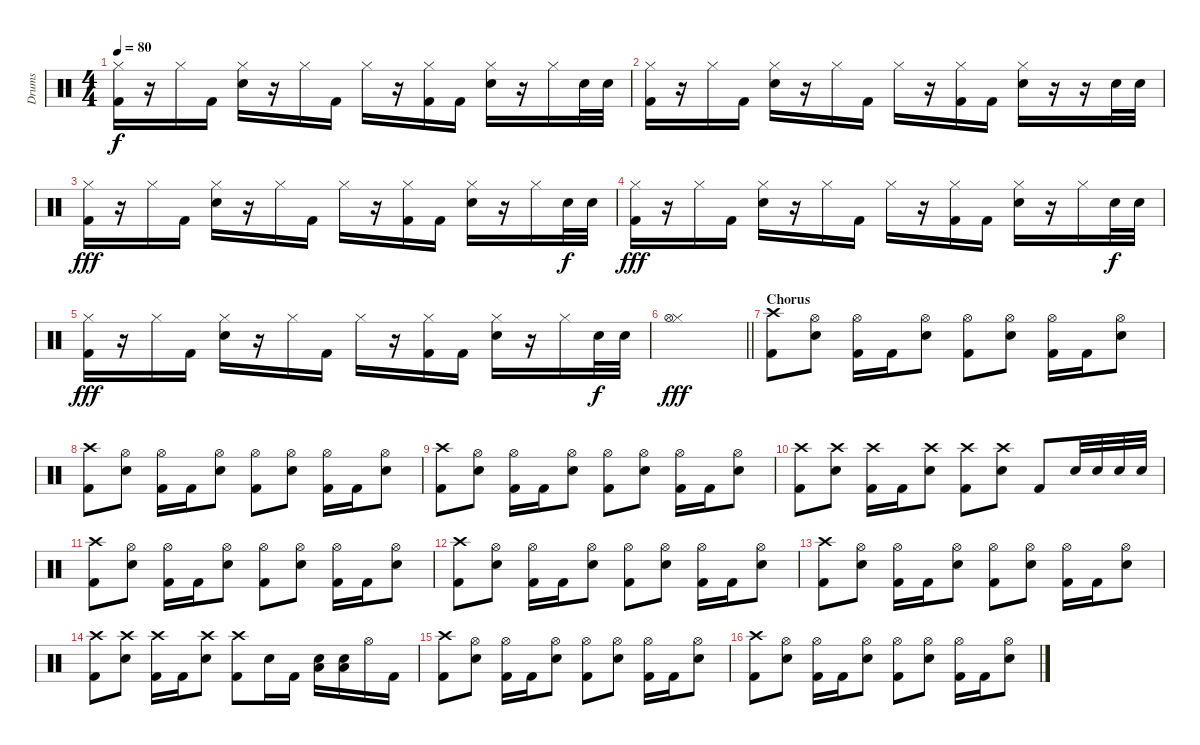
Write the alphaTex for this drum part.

\track ("Drums" "Drums") {instrument percussion}
\staff {score}
\articulation defaults
\ts (4 4)
\tempo 80
\clef neutral
\ks c
("Hi-Hat (closed)" "Kick (hit) 2").16{dy f} r.16 "Hi-Hat (closed)".16 "Kick (hit) 2".16 ("Hi-Hat (closed)" "Snare (hit) 2").16 r.16 "Hi-Hat (closed)".16 "Kick (hit) 2".16 "Hi-Hat (closed)".16 r.16 ("Hi-Hat (closed)" "Kick (hit) 2").16 "Kick (hit) 2".16 ("Hi-Hat (closed)" "Snare (hit) 2").16 r.16 "Hi-Hat (closed)".16 "Snare (hit) 2".32 "Snare (hit) 2".32 |
("Hi-Hat (closed)" "Kick (hit) 2").16 r.16 "Hi-Hat (closed)".16 "Kick (hit) 2".16 ("Hi-Hat (closed)" "Snare (hit) 2").16 r.16 "Hi-Hat (closed)".16 "Kick (hit) 2".16 "Hi-Hat (closed)".16 r.16 ("Hi-Hat (closed)" "Kick (hit) 2").16 "Kick (hit) 2".16 ("Hi-Hat (closed)" "Snare (hit) 2").16 r.16 r.16 "Snare (hit) 2".32 "Snare (hit) 2".32 |
("Hi-Hat (closed)" "Kick (hit) 2").16{dy fff} r.16 "Hi-Hat (closed)".16 "Kick (hit) 2".16 ("Hi-Hat (closed)" "Snare (hit) 2").16 r.16 "Hi-Hat (closed)".16 "Kick (hit) 2".16 "Hi-Hat (closed)".16 r.16 ("Hi-Hat (closed)" "Kick (hit) 2").16 "Kick (hit) 2".16 ("Hi-Hat (closed)" "Snare (hit) 2").16 r.16 "Hi-Hat (closed)".16 "Snare (hit) 2".32{dy f} "Snare (hit) 2".32 |
("Hi-Hat (closed)" "Kick (hit) 2").16{dy fff} r.16 "Hi-Hat (closed)".16 "Kick (hit) 2".16 ("Hi-Hat (closed)" "Snare (hit) 2").16 r.16 "Hi-Hat (closed)".16 "Kick (hit) 2".16 "Hi-Hat (closed)".16 r.16 ("Hi-Hat (closed)" "Kick (hit) 2").16 "Kick (hit) 2".16 ("Hi-Hat (closed)" "Snare (hit) 2").16 r.16 "Hi-Hat (closed)".16 "Snare (hit) 2".32{dy f} "Snare (hit) 2".32 |
("Hi-Hat (closed)" "Kick (hit) 2").16{dy fff} r.16 "Hi-Hat (closed)".16 "Kick (hit) 2".16 ("Hi-Hat (closed)" "Snare (hit) 2").16 r.16 "Hi-Hat (closed)".16 "Kick (hit) 2".16 "Hi-Hat (closed)".16 r.16 ("Hi-Hat (closed)" "Kick (hit) 2").16 "Kick (hit) 2".16 ("Hi-Hat (closed)" "Snare (hit) 2").16 r.16 "Hi-Hat (closed)".16 "Snare (hit) 2".32{dy f} "Snare (hit) 2".32 |
\barLineRight lightlight
("Hi-Hat (closed)" "Hi-Hat (open)").1{dy fff} |
\section ("" "Chorus")
("Crash high (hit)" "Kick (hit) 2").8 ("Hi-Hat (open)" "Snare (hit) 2").8 ("Hi-Hat (open)" "Kick (hit) 2").16 "Kick (hit) 2".16 ("Hi-Hat (open)" "Snare (hit) 2").8 ("Hi-Hat (open)" "Kick (hit) 2").8 ("Hi-Hat (open)" "Snare (hit) 2").8 ("Hi-Hat (open)" "Kick (hit) 2").16 "Kick (hit) 2".16 ("Hi-Hat (open)" "Snare (hit) 2").8 |
("Crash high (hit)" "Kick (hit) 2").8 ("Hi-Hat (open)" "Snare (hit) 2").8 ("Hi-Hat (open)" "Kick (hit) 2").16 "Kick (hit) 2".16 ("Hi-Hat (open)" "Snare (hit) 2").8 ("Hi-Hat (open)" "Kick (hit) 2").8 ("Hi-Hat (open)" "Snare (hit) 2").8 ("Hi-Hat (open)" "Kick (hit) 2").16 "Kick (hit) 2".16 ("Hi-Hat (open)" "Snare (hit) 2").8 |
("Crash high (hit)" "Kick (hit) 2").8 ("Hi-Hat (open)" "Snare (hit) 2").8 ("Hi-Hat (open)" "Kick (hit) 2").16 "Kick (hit) 2".16 ("Hi-Hat (open)" "Snare (hit) 2").8 ("Hi-Hat (open)" "Kick (hit) 2").8 ("Hi-Hat (open)" "Snare (hit) 2").8 ("Hi-Hat (open)" "Kick (hit) 2").16 "Kick (hit) 2".16 ("Hi-Hat (open)" "Snare (hit) 2").8 |
("Crash high (hit)" "Kick (hit) 2").8 ("Crash high (hit)" "Snare (hit) 2").8 ("Crash high (hit)" "Kick (hit) 2").16 "Kick (hit) 2".16 ("Crash high (hit)" "Snare (hit) 2").8 ("Crash high (hit)" "Kick (hit) 2").8 ("Crash high (hit)" "Snare (hit) 2").8 "Kick (hit) 2".8 "Snare (hit) 2".32 "Snare (hit) 2".32 "Snare (hit) 2".32 "Snare (hit) 2".32 |
("Crash high (hit)" "Kick (hit) 2").8 ("Hi-Hat (open)" "Snare (hit) 2").8 ("Hi-Hat (open)" "Kick (hit) 2").16 "Kick (hit) 2".16 ("Hi-Hat (open)" "Snare (hit) 2").8 ("Hi-Hat (open)" "Kick (hit) 2").8 ("Hi-Hat (open)" "Snare (hit) 2").8 ("Hi-Hat (open)" "Kick (hit) 2").16 "Kick (hit) 2".16 ("Hi-Hat (open)" "Snare (hit) 2").8 |
("Crash high (hit)" "Kick (hit) 2").8 ("Hi-Hat (open)" "Snare (hit) 2").8 ("Hi-Hat (open)" "Kick (hit) 2").16 "Kick (hit) 2".16 ("Hi-Hat (open)" "Snare (hit) 2").8 ("Hi-Hat (open)" "Kick (hit) 2").8 ("Hi-Hat (open)" "Snare (hit) 2").8 ("Hi-Hat (open)" "Kick (hit) 2").16 "Kick (hit) 2".16 ("Hi-Hat (open)" "Snare (hit) 2").8 |
("Crash high (hit)" "Kick (hit) 2").8 ("Hi-Hat (open)" "Snare (hit) 2").8 ("Hi-Hat (open)" "Kick (hit) 2").16 "Kick (hit) 2".16 ("Hi-Hat (open)" "Snare (hit) 2").8 ("Hi-Hat (open)" "Kick (hit) 2").8 ("Hi-Hat (open)" "Snare (hit) 2").8 ("Hi-Hat (open)" "Kick (hit) 2").16 "Kick (hit) 2".16 ("Hi-Hat (open)" "Snare (hit) 2").8 |
("Crash high (hit)" "Kick (hit) 2").8 ("Crash high (hit)" "Snare (hit) 2").8 ("Crash high (hit)" "Kick (hit) 2").16 "Kick (hit) 2".16 ("Crash high (hit)" "Snare (hit) 2").8 ("Crash high (hit)" "Kick (hit) 2").8 "Snare (hit) 2".16 "Kick (hit) 2".16 ("Snare (hit) 2" "Low Floor Tom (hit)").16 ("Snare (hit) 2" "Low Floor Tom (hit)").16 "Hi-Hat (open)".16 "Kick (hit) 2".16 |
("Crash high (hit)" "Kick (hit) 2").8 ("Hi-Hat (open)" "Snare (hit) 2").8 ("Hi-Hat (open)" "Kick (hit) 2").16 "Kick (hit) 2".16 ("Hi-Hat (open)" "Snare (hit) 2").8 ("Hi-Hat (open)" "Kick (hit) 2").8 ("Hi-Hat (open)" "Snare (hit) 2").8 ("Hi-Hat (open)" "Kick (hit) 2").16 "Kick (hit) 2".16 ("Hi-Hat (open)" "Snare (hit) 2").8 |
("Crash high (hit)" "Kick (hit) 2").8 ("Hi-Hat (open)" "Snare (hit) 2").8 ("Hi-Hat (open)" "Kick (hit) 2").16 "Kick (hit) 2".16 ("Hi-Hat (open)" "Snare (hit) 2").8 ("Hi-Hat (open)" "Kick (hit) 2").8 ("Hi-Hat (open)" "Snare (hit) 2").8 ("Hi-Hat (open)" "Kick (hit) 2").16 "Kick (hit) 2".16 ("Hi-Hat (open)" "Snare (hit) 2").8
